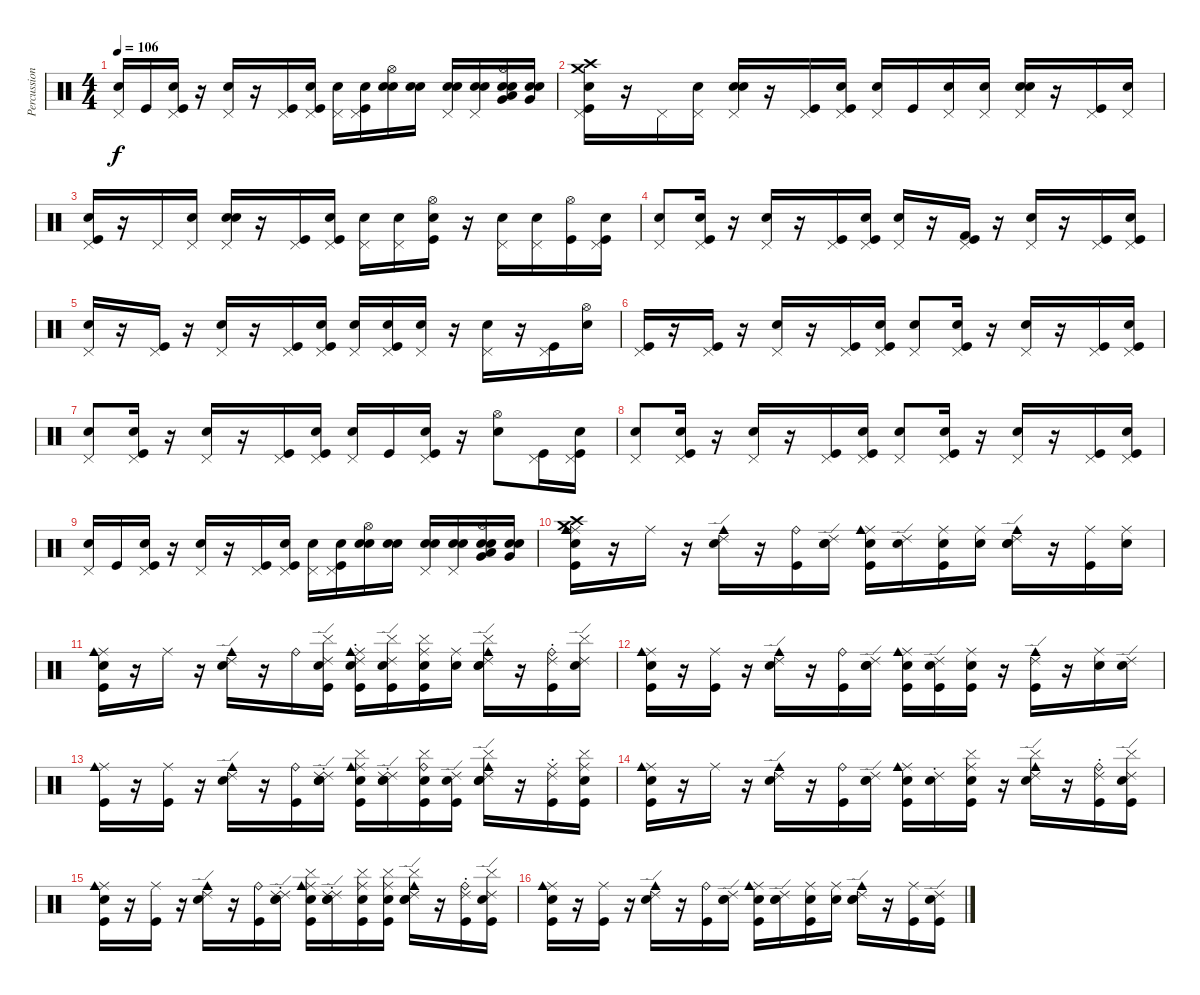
\track ("Percussions (Zaac)" "Percussion") {instrument percussion}
\staff {score}
\articulation defaults
\ts (4 4)
\tempo 106
\clef neutral
\ks c
("Snare (hit)" "Pedal Hi-Hat (hit)").16{dy f} "Kick (hit)".16 ("Snare (hit)" "Kick (hit)" "Pedal Hi-Hat (hit)").16 r.16 ("Electric Snare (hit)" "Pedal Hi-Hat (hit)").16 r.16 ("Kick (hit)" "Pedal Hi-Hat (hit)").16 ("Snare (hit)" "Kick (hit)" "Pedal Hi-Hat (hit)").16 ("Snare (hit)" "Pedal Hi-Hat (hit)").16 ("Snare (hit)" "Kick (hit)" "Pedal Hi-Hat (hit)").16 ("Snare (hit)" "Electric Snare (hit)" "Hi-Hat (open)").16 ("Snare (hit)" "Electric Snare (hit)").16 ("Snare (hit)" "Electric Snare (hit)" "Pedal Hi-Hat (hit)").16 ("Snare (hit)" "Electric Snare (hit)" "Pedal Hi-Hat (hit)").16 ("Snare (hit)" "Electric Snare (hit)" "Very Low Tom (hit)" "Low Tom (hit)" "Hi-Hat (open)").16 ("Snare (hit)" "Electric Snare (hit)" "Very Low Tom (hit)").16 |
("Snare (hit)" "Kick (hit)" "Pedal Hi-Hat (hit)" "Crash high (hit)" "Crash medium (hit)").16 r.16 "Pedal Hi-Hat (hit)".16 ("Snare (hit)" "Pedal Hi-Hat (hit)").16 ("Snare (hit)" "Electric Snare (hit)" "Pedal Hi-Hat (hit)").16 r.16 ("Kick (hit)" "Pedal Hi-Hat (hit)").16 ("Snare (hit)" "Kick (hit)" "Pedal Hi-Hat (hit)").16 ("Snare (hit)" "Pedal Hi-Hat (hit)").16 "Kick (hit)".16 ("Snare (hit)" "Pedal Hi-Hat (hit)").16 ("Snare (hit)" "Pedal Hi-Hat (hit)").16 ("Snare (hit)" "Electric Snare (hit)" "Pedal Hi-Hat (hit)").16 r.16 ("Kick (hit)" "Pedal Hi-Hat (hit)").16 ("Snare (hit)" "Pedal Hi-Hat (hit)").16 |
("Snare (hit)" "Kick (hit)" "Pedal Hi-Hat (hit)").16 r.16 "Pedal Hi-Hat (hit)".16 ("Snare (hit)" "Pedal Hi-Hat (hit)").16 ("Snare (hit)" "Electric Snare (hit)" "Pedal Hi-Hat (hit)").16 r.16 ("Kick (hit)" "Pedal Hi-Hat (hit)").16 ("Snare (hit)" "Kick (hit)" "Pedal Hi-Hat (hit)").16 ("Snare (hit)" "Pedal Hi-Hat (hit)").16 ("Snare (hit)" "Pedal Hi-Hat (hit)").16 ("Snare (hit)" "Kick (hit)" "Hi-Hat (open)").16 r.16 ("Electric Snare (hit)" "Pedal Hi-Hat (hit)").16 ("Snare (hit)" "Pedal Hi-Hat (hit)").16 ("Kick (hit)" "Hi-Hat (open)").16 ("Snare (hit)" "Kick (hit)" "Pedal Hi-Hat (hit)").16 |
("Snare (hit)" "Pedal Hi-Hat (hit)").8 ("Snare (hit)" "Kick (hit)" "Pedal Hi-Hat (hit)").16 r.16 ("Electric Snare (hit)" "Pedal Hi-Hat (hit)").16 r.16 ("Kick (hit)" "Pedal Hi-Hat (hit)").16 ("Snare (hit)" "Kick (hit)" "Pedal Hi-Hat (hit)").16 ("Snare (hit)" "Pedal Hi-Hat (hit)").16 r.16 ("Kick (hit)" "Kick (hit) 2" "Pedal Hi-Hat (hit)").16 r.16 ("Electric Snare (hit)" "Pedal Hi-Hat (hit)").16 r.16 ("Kick (hit)" "Pedal Hi-Hat (hit)").16 ("Snare (hit)" "Kick (hit)" "Pedal Hi-Hat (hit)").16 |
("Snare (hit)" "Pedal Hi-Hat (hit)").16 r.16 ("Kick (hit)" "Pedal Hi-Hat (hit)").16 r.16 ("Electric Snare (hit)" "Pedal Hi-Hat (hit)").16 r.16 ("Kick (hit)" "Pedal Hi-Hat (hit)").16 ("Snare (hit)" "Kick (hit)" "Pedal Hi-Hat (hit)").16 ("Snare (hit)" "Pedal Hi-Hat (hit)").16 ("Snare (hit)" "Kick (hit)" "Pedal Hi-Hat (hit)").16 ("Snare (hit)" "Pedal Hi-Hat (hit)").16 r.16 ("Electric Snare (hit)" "Pedal Hi-Hat (hit)").16 r.16 ("Kick (hit)" "Pedal Hi-Hat (hit)").16 ("Snare (hit)" "Hi-Hat (open)").16 |
("Kick (hit)" "Pedal Hi-Hat (hit)").16 r.16 ("Kick (hit)" "Pedal Hi-Hat (hit)").16 r.16 ("Electric Snare (hit)" "Pedal Hi-Hat (hit)").16 r.16 ("Kick (hit)" "Pedal Hi-Hat (hit)").16 ("Snare (hit)" "Kick (hit)" "Pedal Hi-Hat (hit)").16 ("Snare (hit)" "Pedal Hi-Hat (hit)").8 ("Snare (hit)" "Kick (hit)" "Pedal Hi-Hat (hit)").16 r.16 ("Electric Snare (hit)" "Pedal Hi-Hat (hit)").16 r.16 ("Kick (hit)" "Pedal Hi-Hat (hit)").16 ("Snare (hit)" "Kick (hit)" "Pedal Hi-Hat (hit)").16 |
("Snare (hit)" "Pedal Hi-Hat (hit)").8 ("Snare (hit)" "Kick (hit)" "Pedal Hi-Hat (hit)").16 r.16 ("Electric Snare (hit)" "Pedal Hi-Hat (hit)").16 r.16 ("Kick (hit)" "Pedal Hi-Hat (hit)").16 ("Snare (hit)" "Kick (hit)" "Pedal Hi-Hat (hit)").16 ("Snare (hit)" "Pedal Hi-Hat (hit)").16 "Kick (hit)".16 ("Snare (hit)" "Kick (hit)" "Pedal Hi-Hat (hit)").16 r.16 ("Electric Snare (hit)" "Hi-Hat (open)").8 ("Kick (hit)" "Pedal Hi-Hat (hit)").16 ("Snare (hit)" "Kick (hit)" "Pedal Hi-Hat (hit)").16 |
("Snare (hit)" "Pedal Hi-Hat (hit)").8 ("Snare (hit)" "Kick (hit)" "Pedal Hi-Hat (hit)").16 r.16 ("Electric Snare (hit)" "Pedal Hi-Hat (hit)").16 r.16 ("Kick (hit)" "Pedal Hi-Hat (hit)").16 ("Snare (hit)" "Kick (hit)" "Pedal Hi-Hat (hit)").16 ("Snare (hit)" "Pedal Hi-Hat (hit)").8 ("Snare (hit)" "Kick (hit)" "Pedal Hi-Hat (hit)").16 r.16 ("Electric Snare (hit)" "Pedal Hi-Hat (hit)").16 r.16 ("Kick (hit)" "Pedal Hi-Hat (hit)").16 ("Snare (hit)" "Kick (hit)" "Pedal Hi-Hat (hit)").16 |
("Snare (hit)" "Pedal Hi-Hat (hit)").16 "Kick (hit)".16 ("Snare (hit)" "Kick (hit)" "Pedal Hi-Hat (hit)").16 r.16 ("Electric Snare (hit)" "Pedal Hi-Hat (hit)").16 r.16 ("Kick (hit)" "Pedal Hi-Hat (hit)").16 ("Snare (hit)" "Kick (hit)" "Pedal Hi-Hat (hit)").16 ("Snare (hit)" "Pedal Hi-Hat (hit)").16 ("Snare (hit)" "Kick (hit)" "Pedal Hi-Hat (hit)").16 ("Snare (hit)" "Electric Snare (hit)" "Hi-Hat (open)").16 ("Snare (hit)" "Electric Snare (hit)").16 ("Snare (hit)" "Electric Snare (hit)" "Pedal Hi-Hat (hit)").16 ("Snare (hit)" "Electric Snare (hit)" "Pedal Hi-Hat (hit)").16 ("Snare (hit)" "Electric Snare (hit)" "Very Low Tom (hit)" "Low Tom (hit)" "Hi-Hat (open)").16 ("Snare (hit)" "Electric Snare (hit)" "Very Low Tom (hit)").16 |
("Snare (hit)" "Kick (hit)" "Crash high (hit)" "Ride (middle)" "Cowbell medium (hit)" "Crash medium (hit)").16 r.16 "Ride (middle)".16 r.16 ("Electric Snare (hit)" "Cowbell medium (hit)" "Ride (edge) 2").16 r.16 ("Kick (hit)" "Ride (bell)").16 ("Snare (hit)" "Electric Snare (hit)" "Ride (edge) 2").16 ("Snare (hit)" "Kick (hit)" "Ride (middle)" "Cowbell medium (hit)").16 ("Snare (hit)" "Ride (edge) 2").16 ("Snare (hit)" "Kick (hit)" "Ride (middle)").16 ("Snare (hit)" "Ride (middle)").16 ("Snare (hit)" "Electric Snare (hit)" "Cowbell medium (hit)" "Ride (edge) 2").16 r.16 ("Kick (hit)" "Ride (middle)").16 ("Snare (hit)" "Ride (middle)").16 |
("Snare (hit)" "Kick (hit)" "Ride (middle)" "Cowbell medium (hit)").16 r.16 "Ride (middle)".16 r.16 ("Electric Snare (hit)" "Cowbell medium (hit)" "Ride (edge) 2").16 r.16 "Ride (bell)".16 ("Snare (hit)" "Cymbal (hit)" "Kick (hit)" "Ride (edge) 2").16 ("Snare (hit)" "Ride (choke) 2" "Kick (hit)" "Ride (middle)" "Cowbell medium (hit)").16 ("Snare (hit)" "Cymbal (hit)" "Kick (hit)" "Ride (edge) 2").16 ("Snare (hit)" "Cymbal (hit)" "Kick (hit)" "Ride (middle)").16 ("Snare (hit)" "Ride (middle)").16 ("Snare (hit)" "Cymbal (hit)" "Electric Snare (hit)" "Cowbell medium (hit)" "Ride (edge) 2").16 r.16 ("Ride (choke) 2" "Kick (hit)" "Ride (bell)").16 ("Snare (hit)" "Cymbal (hit)" "Ride (edge) 2").16 |
("Snare (hit)" "Kick (hit)" "Ride (middle)" "Cowbell medium (hit)").16 r.16 ("Kick (hit)" "Ride (middle)").16 r.16 ("Electric Snare (hit)" "Cowbell medium (hit)" "Ride (edge) 2").16 r.16 ("Kick (hit)" "Ride (bell)").16 ("Snare (hit)" "Electric Snare (hit)" "Ride (edge) 2").16 ("Snare (hit)" "Kick (hit)" "Ride (middle)" "Cowbell medium (hit)").16 ("Snare (hit)" "Kick (hit)" "Ride (edge) 2").16 ("Snare (hit)" "Kick (hit)" "Ride (middle)").16 r.16 ("Kick (hit)" "Cowbell medium (hit)" "Ride (edge) 2").16 r.16 ("Electric Snare (hit)" "Ride (middle)").16 ("Snare (hit)" "Ride (edge) 2").16 |
("Kick (hit)" "Ride (middle)" "Cowbell medium (hit)").16 r.16 ("Kick (hit)" "Ride (middle)").16 r.16 ("Electric Snare (hit)" "Cowbell medium (hit)" "Ride (edge) 2").16 r.16 ("Kick (hit)" "Ride (bell)").16 ("Snare (hit)" "Ride (choke) 2" "Electric Snare (hit)" "Ride (edge) 2").16 ("Snare (hit)" "Cymbal (hit)" "Kick (hit)" "Ride (middle)" "Cowbell medium (hit)").16 ("Snare (hit)" "Ride (choke) 2" "Electric Snare (hit)" "Ride (edge) 2").16 ("Snare (hit)" "Cymbal (hit)" "Kick (hit)" "Ride (bell)").16 ("Snare (hit)" "Kick (hit)" "Ride (edge) 2").16 ("Snare (hit)" "Cymbal (hit)" "Electric Snare (hit)" "Cowbell medium (hit)" "Ride (edge) 2").16 r.16 ("Ride (choke) 2" "Kick (hit)" "Ride (middle)").16 ("Snare (hit)" "Cymbal (hit)" "Kick (hit)" "Ride (middle)").16 |
("Snare (hit)" "Kick (hit)" "Ride (middle)" "Cowbell medium (hit)").16 r.16 "Ride (middle)".16 r.16 ("Electric Snare (hit)" "Cowbell medium (hit)" "Ride (edge) 2").16 r.16 ("Kick (hit)" "Ride (bell)").16 ("Snare (hit)" "Electric Snare (hit)" "Ride (edge) 2").16 ("Snare (hit)" "Kick (hit)" "Ride (middle)" "Cowbell medium (hit)").16 ("Snare (hit)" "Ride (choke) 2").16 ("Snare (hit)" "Cymbal (hit)" "Kick (hit)" "Ride (middle)").16 r.16 ("Cymbal (hit)" "Electric Snare (hit)" "Cowbell medium (hit)" "Ride (edge) 2").16 r.16 ("Ride (choke) 2" "Kick (hit)" "Ride (bell)").16 ("Snare (hit)" "Cymbal (hit)" "Kick (hit)" "Ride (edge) 2").16 |
("Snare (hit)" "Kick (hit)" "Ride (middle)" "Cowbell medium (hit)").16 r.16 ("Kick (hit)" "Ride (middle)").16 r.16 ("Electric Snare (hit)" "Cowbell medium (hit)" "Ride (edge) 2").16 r.16 ("Kick (hit)" "Ride (bell)").16 ("Snare (hit)" "Ride (choke) 2" "Electric Snare (hit)" "Ride (edge) 2").16 ("Snare (hit)" "Cymbal (hit)" "Kick (hit)" "Ride (middle)" "Cowbell medium (hit)").16 ("Snare (hit)" "Ride (choke) 2" "Electric Snare (hit)" "Ride (edge) 2").16 ("Snare (hit)" "Cymbal (hit)" "Kick (hit)" "Ride (middle)").16 ("Snare (hit)" "Cymbal (hit)" "Kick (hit)" "Ride (middle)").16 ("Snare (hit)" "Cymbal (hit)" "Electric Snare (hit)" "Cowbell medium (hit)" "Ride (edge) 2").16 r.16 ("Ride (choke) 2" "Kick (hit)" "Ride (bell)").16 ("Snare (hit)" "Cymbal (hit)" "Kick (hit)" "Ride (edge) 2").16 |
("Snare (hit)" "Kick (hit)" "Ride (middle)" "Cowbell medium (hit)").16 r.16 ("Kick (hit)" "Ride (middle)").16 r.16 ("Electric Snare (hit)" "Cowbell medium (hit)" "Ride (edge) 2").16 r.16 ("Kick (hit)" "Ride (bell)").16 ("Snare (hit)" "Electric Snare (hit)" "Ride (edge) 2").16 ("Snare (hit)" "Kick (hit)" "Ride (middle)" "Cowbell medium (hit)").16 ("Snare (hit)" "Electric Snare (hit)" "Ride (edge) 2").16 ("Snare (hit)" "Kick (hit)" "Ride (middle)").16 ("Snare (hit)" "Ride (middle)").16 ("Snare (hit)" "Electric Snare (hit)" "Cowbell medium (hit)" "Ride (edge) 2").16 r.16 ("Kick (hit)" "Ride (middle)").16 ("Snare (hit)" "Kick (hit)" "Ride (edge) 2").16
